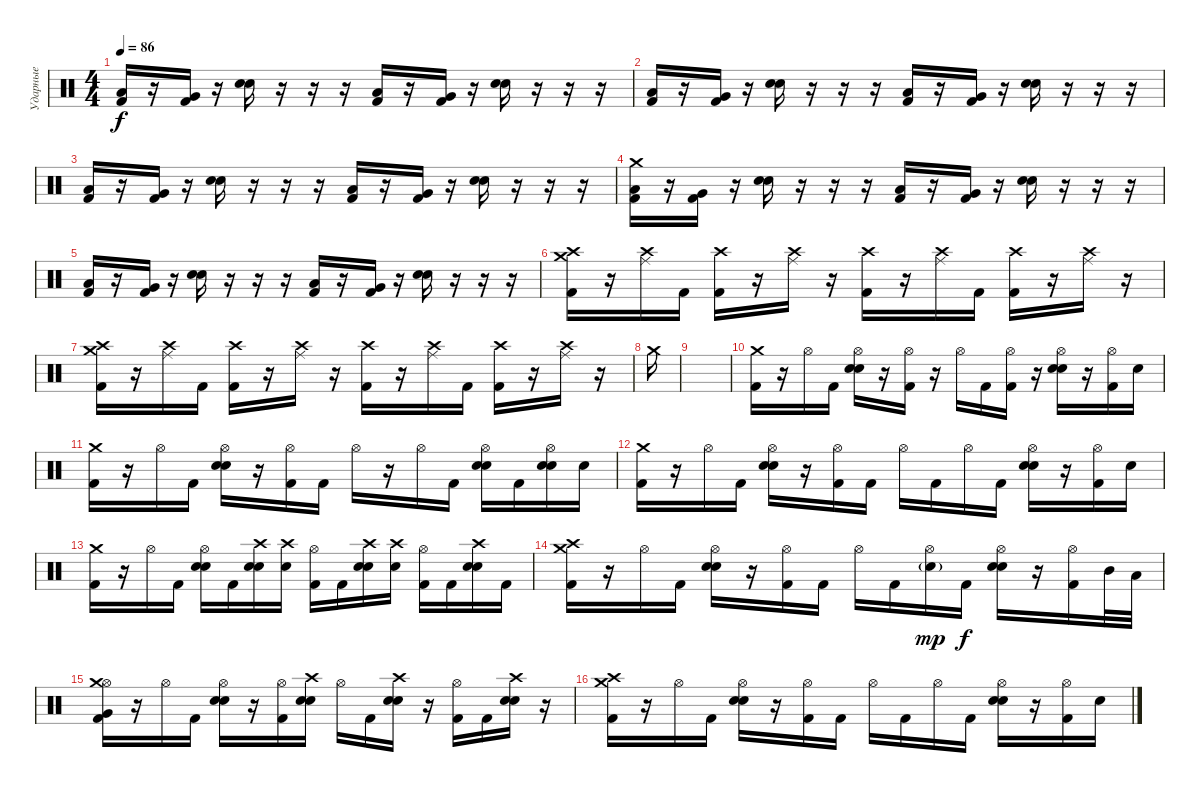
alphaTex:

\track ("Ударные" "Ударные") {instrument percussion}
\staff {score}
\articulation defaults
\ts (4 4)
\tempo 86
\clef neutral
\ks c
("Low Tom (hit)" "Kick (hit) 2").16{dy f} r.16 ("Very Low Tom (hit)" "Kick (hit) 2").16 r.16 ("Snare (hit) 2" "Electric Snare (hit)").16 r.16 r.16 r.16 ("Low Tom (hit)" "Kick (hit) 2").16 r.16 ("Very Low Tom (hit)" "Kick (hit) 2").16 r.16 ("Snare (hit) 2" "Electric Snare (hit)").16 r.16 r.16 r.16 |
("Low Tom (hit)" "Kick (hit) 2").16 r.16 ("Very Low Tom (hit)" "Kick (hit) 2").16 r.16 ("Snare (hit) 2" "Electric Snare (hit)").16 r.16 r.16 r.16 ("Low Tom (hit)" "Kick (hit) 2").16 r.16 ("Very Low Tom (hit)" "Kick (hit) 2").16 r.16 ("Snare (hit) 2" "Electric Snare (hit)").16 r.16 r.16 r.16 |
("Low Tom (hit)" "Kick (hit) 2").16 r.16 ("Very Low Tom (hit)" "Kick (hit) 2").16 r.16 ("Snare (hit) 2" "Electric Snare (hit)").16 r.16 r.16 r.16 ("Low Tom (hit)" "Kick (hit) 2").16 r.16 ("Very Low Tom (hit)" "Kick (hit) 2").16 r.16 ("Snare (hit) 2" "Electric Snare (hit)").16 r.16 r.16 r.16 |
("Crash medium (hit)" "Low Tom (hit)" "Kick (hit) 2").16 r.16 ("Very Low Tom (hit)" "Kick (hit) 2").16 r.16 ("Snare (hit) 2" "Electric Snare (hit)").16 r.16 r.16 r.16 ("Low Tom (hit)" "Kick (hit) 2").16 r.16 ("Very Low Tom (hit)" "Kick (hit) 2").16 r.16 ("Snare (hit) 2" "Electric Snare (hit)").16 r.16 r.16 r.16 |
("Low Tom (hit)" "Kick (hit) 2").16 r.16 ("Very Low Tom (hit)" "Kick (hit) 2").16 r.16 ("Snare (hit) 2" "Electric Snare (hit)").16 r.16 r.16 r.16 ("Low Tom (hit)" "Kick (hit) 2").16 r.16 ("Very Low Tom (hit)" "Kick (hit) 2").16 r.16 ("Snare (hit) 2" "Electric Snare (hit)").16 r.16 r.16 r.16 |
("Crash medium (hit)" "Crash high (hit)" "Kick (hit) 2").16 r.16 ("Ride (middle)" "Crash high (hit)").16 "Kick (hit) 2".16 ("Crash high (hit)" "Kick (hit) 2").16 r.16 ("Ride (middle)" "Crash high (hit)").16 r.16 ("Crash high (hit)" "Kick (hit) 2").16 r.16 ("Ride (middle)" "Crash high (hit)").16 "Kick (hit) 2".16 ("Crash high (hit)" "Kick (hit) 2").16 r.16 ("Ride (middle)" "Crash high (hit)").16 r.16 |
("Crash medium (hit)" "Crash high (hit)" "Kick (hit) 2").16 r.16 ("Ride (middle)" "Crash high (hit)").16 "Kick (hit) 2".16 ("Crash high (hit)" "Kick (hit) 2").16 r.16 ("Ride (middle)" "Crash high (hit)").16 r.16 ("Crash high (hit)" "Kick (hit) 2").16 r.16 ("Ride (middle)" "Crash high (hit)").16 "Kick (hit) 2".16 ("Crash high (hit)" "Kick (hit) 2").16 r.16 ("Ride (middle)" "Crash high (hit)").16 r.16 |
"Crash medium (hit)".16 |
|
("Crash medium (hit)" "Kick (hit) 2").16 r.16 "Hi-Hat (open)".16 "Kick (hit) 2".16 ("Hi-Hat (open)" "Snare (hit) 2" "Electric Snare (hit)").16 r.16 ("Hi-Hat (open)" "Kick (hit) 2").16 r.16 "Hi-Hat (open)".16 "Kick (hit) 2".16 ("Hi-Hat (open)" "Kick (hit) 2").16 r.16 ("Hi-Hat (open)" "Snare (hit) 2" "Electric Snare (hit)").16 r.16 ("Hi-Hat (open)" "Kick (hit) 2").16 "Electric Snare (hit)".16 |
("Crash medium (hit)" "Kick (hit) 2").16 r.16 "Hi-Hat (open)".16 "Kick (hit) 2".16 ("Hi-Hat (open)" "Snare (hit) 2" "Electric Snare (hit)").16 r.16 ("Hi-Hat (open)" "Kick (hit) 2").16 "Kick (hit) 2".16 "Hi-Hat (open)".16 r.16 "Hi-Hat (open)".16 "Kick (hit) 2".16 ("Hi-Hat (open)" "Snare (hit) 2" "Electric Snare (hit)").16 "Kick (hit) 2".16 ("Hi-Hat (open)" "Snare (hit) 2" "Electric Snare (hit)").16 "Electric Snare (hit)".16 |
("Crash medium (hit)" "Kick (hit) 2").16 r.16 "Hi-Hat (open)".16 "Kick (hit) 2".16 ("Hi-Hat (open)" "Snare (hit) 2" "Electric Snare (hit)").16 r.16 ("Hi-Hat (open)" "Kick (hit) 2").16 "Kick (hit) 2".16 "Hi-Hat (open)".16 "Kick (hit) 2".16 "Hi-Hat (open)".16 "Kick (hit) 2".16 ("Hi-Hat (open)" "Snare (hit) 2" "Electric Snare (hit)").16 r.16 ("Hi-Hat (open)" "Kick (hit) 2").16 "Electric Snare (hit)".16 |
("Crash medium (hit)" "Kick (hit) 2").16 r.16 "Hi-Hat (open)".16 "Kick (hit) 2".16 ("Hi-Hat (open)" "Snare (hit) 2" "Electric Snare (hit)").16 "Kick (hit) 2".16 ("Crash high (hit)" "Snare (hit) 2" "Electric Snare (hit)").16 ("Crash high (hit)" "Electric Snare (hit)").16 ("Hi-Hat (open)" "Kick (hit) 2").16 "Kick (hit) 2".16 ("Crash high (hit)" "Snare (hit) 2" "Electric Snare (hit)").16 ("Crash high (hit)" "Electric Snare (hit)").16 ("Hi-Hat (open)" "Kick (hit) 2").16 "Kick (hit) 2".16 ("Crash high (hit)" "Snare (hit) 2" "Electric Snare (hit)").16 "Kick (hit) 2".16 |
("Crash medium (hit)" "Crash high (hit)" "Kick (hit) 2").16 r.16 "Hi-Hat (open)".16 "Kick (hit) 2".16 ("Hi-Hat (open)" "Snare (hit) 2" "Electric Snare (hit)").16 r.16 ("Hi-Hat (open)" "Kick (hit) 2").16 "Kick (hit) 2".16 "Hi-Hat (open)".16 "Kick (hit) 2".16 ("Hi-Hat (open)" "Snare (hit) 2"{g}).16{dy mp} "Kick (hit) 2".16{dy f} ("Hi-Hat (open)" "Snare (hit) 2" "Electric Snare (hit)").16 r.16 ("Hi-Hat (open)" "Kick (hit) 2").16 "Mid Tom (hit)".32 "Low Tom (hit)".32 |
("Hi-Hat (open)" "Crash medium (hit)" "Very Low Tom (hit)" "Kick (hit) 2").16 r.16 "Hi-Hat (open)".16 "Kick (hit) 2".16 ("Hi-Hat (open)" "Snare (hit) 2" "Electric Snare (hit)").16 r.16 ("Hi-Hat (open)" "Kick (hit) 2").16 ("Crash high (hit)" "Snare (hit) 2" "Electric Snare (hit)").16 "Hi-Hat (open)".16 "Kick (hit) 2".16 ("Crash high (hit)" "Snare (hit) 2" "Electric Snare (hit)").16 r.16 ("Hi-Hat (open)" "Kick (hit) 2").16 "Kick (hit) 2".16 ("Crash high (hit)" "Snare (hit) 2" "Electric Snare (hit)").16 r.16 |
("Crash medium (hit)" "Crash high (hit)" "Kick (hit) 2").16 r.16 "Hi-Hat (open)".16 "Kick (hit) 2".16 ("Hi-Hat (open)" "Snare (hit) 2" "Electric Snare (hit)").16 r.16 ("Hi-Hat (open)" "Kick (hit) 2").16 "Kick (hit) 2".16 "Hi-Hat (open)".16 "Kick (hit) 2".16 "Hi-Hat (open)".16 "Kick (hit) 2".16 ("Hi-Hat (open)" "Snare (hit) 2" "Electric Snare (hit)").16 r.16 ("Hi-Hat (open)" "Kick (hit) 2").16 "Electric Snare (hit)".16
